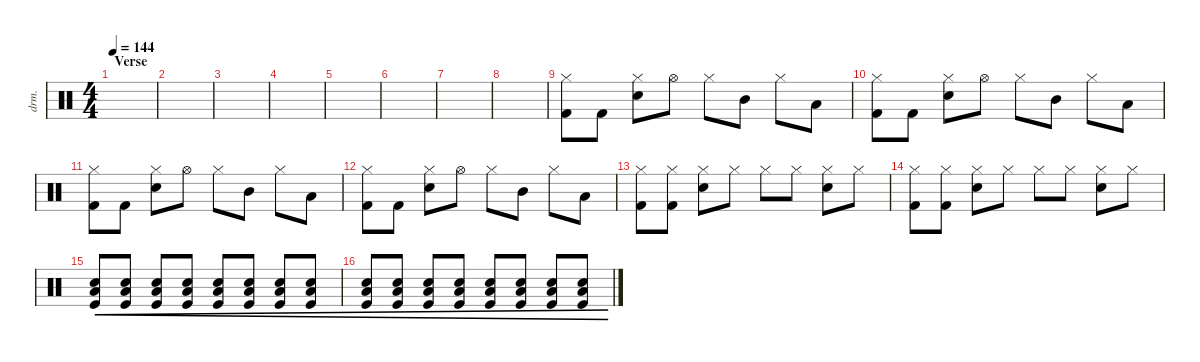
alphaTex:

\defaultSystemsLayout 4
\hideDynamics
\bracketExtendMode nobrackets
\otherSystemsTrackNameOrientation horizontal
\track ("Drumkit" "drm.") {instrument percussion}
\staff {score}
\articulation defaults
\ts (4 4)
\section ("" "Verse")
\tempo 144
\clef neutral
\ks c
|
|
|
|
|
|
|
|
("Kick (hit) 2" "Hi-Hat (closed)").8{beam Down} "Kick (hit) 2".8{beam Down} ("Snare (hit) 2" "Hi-Hat (closed)").8{beam Down} "Hi-Hat (open)".8{beam Down} "Hi-Hat (closed)".8{beam Down} "Mid Tom (hit)".8{beam Down} "Hi-Hat (closed)".8{beam Down} "Low Tom (hit)".8{beam Down} |
("Kick (hit) 2" "Hi-Hat (closed)").8{beam Down} "Kick (hit) 2".8{beam Down} ("Snare (hit) 2" "Hi-Hat (closed)").8{beam Down} "Hi-Hat (open)".8{beam Down} "Hi-Hat (closed)".8{beam Down} "Mid Tom (hit)".8{beam Down} "Hi-Hat (closed)".8{beam Down} "Low Tom (hit)".8{beam Down} |
("Kick (hit) 2" "Hi-Hat (closed)").8{beam Down} "Kick (hit) 2".8{beam Down} ("Snare (hit) 2" "Hi-Hat (closed)").8{beam Down} "Hi-Hat (open)".8{beam Down} "Hi-Hat (closed)".8{beam Down} "Mid Tom (hit)".8{beam Down} "Hi-Hat (closed)".8{beam Down} "Low Tom (hit)".8{beam Down} |
("Kick (hit) 2" "Hi-Hat (closed)").8{beam Down} "Kick (hit) 2".8{beam Down} ("Snare (hit) 2" "Hi-Hat (closed)").8{beam Down} "Hi-Hat (open)".8{beam Down} "Hi-Hat (closed)".8{beam Down} "Mid Tom (hit)".8{beam Down} "Hi-Hat (closed)".8{beam Down} "Low Tom (hit)".8{beam Down} |
("Kick (hit) 2" "Hi-Hat (closed)").8{beam Down} ("Kick (hit) 2" "Hi-Hat (closed)").8{beam Down} ("Snare (hit) 2" "Hi-Hat (closed)").8{beam Down} "Hi-Hat (closed)".8{beam Down} "Hi-Hat (closed)".8{beam Down} "Hi-Hat (closed)".8{beam Down} ("Snare (hit) 2" "Hi-Hat (closed)").8{beam Down} "Hi-Hat (closed)".8{beam Down} |
("Kick (hit) 2" "Hi-Hat (closed)").8{beam Down} ("Kick (hit) 2" "Hi-Hat (closed)").8{beam Down} ("Snare (hit) 2" "Hi-Hat (closed)").8{beam Down} "Hi-Hat (closed)".8{beam Down} "Hi-Hat (closed)".8{beam Down} "Hi-Hat (closed)".8{beam Down} ("Snare (hit) 2" "Hi-Hat (closed)").8{beam Down} "Hi-Hat (closed)".8{beam Down} |
("Snare (hit) 2" "Kick (hit)" "Low Tom (hit)").8{cre beam Up} ("Snare (hit) 2" "Kick (hit)" "Low Tom (hit)").8{cre beam Up} ("Snare (hit) 2" "Kick (hit)" "Low Tom (hit)").8{cre beam Up} ("Snare (hit) 2" "Kick (hit)" "Low Tom (hit)").8{cre beam Up} ("Snare (hit) 2" "Kick (hit)" "Low Tom (hit)").8{cre beam Up} ("Snare (hit) 2" "Kick (hit)" "Low Tom (hit)").8{cre beam Up} ("Snare (hit) 2" "Kick (hit)" "Low Tom (hit)").8{cre beam Up} ("Snare (hit) 2" "Kick (hit)" "Low Tom (hit)").8{cre beam Up} |
("Snare (hit) 2" "Kick (hit)" "Low Tom (hit)").8{cre beam Up} ("Snare (hit) 2" "Kick (hit)" "Low Tom (hit)").8{cre beam Up} ("Snare (hit) 2" "Kick (hit)" "Low Tom (hit)").8{cre beam Up} ("Snare (hit) 2" "Kick (hit)" "Low Tom (hit)").8{cre beam Up} ("Snare (hit) 2" "Kick (hit)" "Low Tom (hit)").8{cre beam Up} ("Snare (hit) 2" "Kick (hit)" "Low Tom (hit)").8{cre beam Up} ("Snare (hit) 2" "Kick (hit)" "Low Tom (hit)").8{cre beam Up} ("Snare (hit) 2" "Kick (hit)" "Low Tom (hit)").8{cre beam Up}
